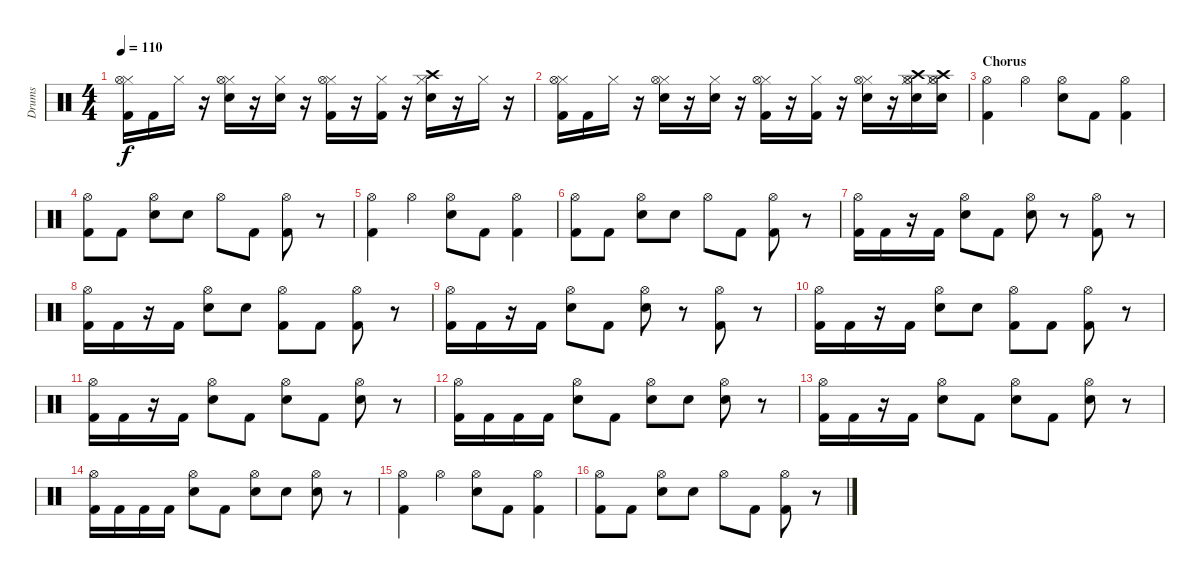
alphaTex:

\track ("Drums" "Drums") {instrument percussion}
\staff {score}
\articulation defaults
\ts (4 4)
\tempo 110
\clef neutral
\ks c
("Hi-Hat (closed)" "Hi-Hat (open)" "Kick (hit) 2").16{dy f} "Kick (hit) 2".16 "Hi-Hat (closed)".16 r.16 ("Hi-Hat (closed)" "Hi-Hat (open)" "Snare (hit) 2").16 r.16 ("Hi-Hat (closed)" "Snare (hit) 2").16 r.16 ("Hi-Hat (closed)" "Hi-Hat (open)" "Kick (hit) 2").16 r.16 ("Hi-Hat (closed)" "Kick (hit) 2").16 r.16 ("Hi-Hat (closed)" "Crash high (hit)" "Snare (hit) 2").16 r.16 "Hi-Hat (closed)".16 r.16 |
("Hi-Hat (closed)" "Hi-Hat (open)" "Kick (hit) 2").16 "Kick (hit) 2".16 "Hi-Hat (closed)".16 r.16 ("Hi-Hat (closed)" "Hi-Hat (open)" "Snare (hit) 2").16 r.16 ("Hi-Hat (closed)" "Snare (hit) 2").16 r.16 ("Hi-Hat (closed)" "Hi-Hat (open)" "Kick (hit) 2").16 r.16 ("Hi-Hat (closed)" "Kick (hit) 2").16 r.16 ("Hi-Hat (closed)" "Hi-Hat (open)" "Snare (hit) 2").16 r.16 ("Hi-Hat (closed)" "Hi-Hat (open)" "Crash high (hit)" "Snare (hit) 2").16 ("Hi-Hat (closed)" "Hi-Hat (open)" "Crash high (hit)" "Snare (hit) 2").16 |
\section ("" "Chorus")
("Hi-Hat (open)" "Kick (hit) 2").4 "Hi-Hat (open)".4 ("Hi-Hat (open)" "Snare (hit) 2").8 "Kick (hit) 2".8 ("Hi-Hat (open)" "Kick (hit) 2").4 |
("Hi-Hat (open)" "Kick (hit) 2").8 "Kick (hit) 2".8 ("Hi-Hat (open)" "Snare (hit) 2").8 "Snare (hit) 2".8 "Hi-Hat (open)".8 "Kick (hit) 2".8 ("Hi-Hat (open)" "Kick (hit) 2").8 r.8 |
("Hi-Hat (open)" "Kick (hit) 2").4 "Hi-Hat (open)".4 ("Hi-Hat (open)" "Snare (hit) 2").8 "Kick (hit) 2".8 ("Hi-Hat (open)" "Kick (hit) 2").4 |
("Hi-Hat (open)" "Kick (hit) 2").8 "Kick (hit) 2".8 ("Hi-Hat (open)" "Snare (hit) 2").8 "Snare (hit) 2".8 "Hi-Hat (open)".8 "Kick (hit) 2".8 ("Hi-Hat (open)" "Kick (hit) 2").8 r.8 |
("Hi-Hat (open)" "Kick (hit) 2").16 "Kick (hit) 2".16 r.16 "Kick (hit) 2".16 ("Hi-Hat (open)" "Snare (hit) 2").8 "Kick (hit) 2".8 ("Hi-Hat (open)" "Snare (hit) 2").8 r.8 ("Hi-Hat (open)" "Kick (hit) 2").8 r.8 |
("Hi-Hat (open)" "Kick (hit) 2").16 "Kick (hit) 2".16 r.16 "Kick (hit) 2".16 ("Hi-Hat (open)" "Snare (hit) 2").8 "Snare (hit) 2".8 ("Hi-Hat (open)" "Kick (hit) 2").8 "Kick (hit) 2".8 ("Hi-Hat (open)" "Kick (hit) 2").8 r.8 |
("Hi-Hat (open)" "Kick (hit) 2").16 "Kick (hit) 2".16 r.16 "Kick (hit) 2".16 ("Hi-Hat (open)" "Snare (hit) 2").8 "Kick (hit) 2".8 ("Hi-Hat (open)" "Snare (hit) 2").8 r.8 ("Hi-Hat (open)" "Kick (hit) 2").8 r.8 |
("Hi-Hat (open)" "Kick (hit) 2").16 "Kick (hit) 2".16 r.16 "Kick (hit) 2".16 ("Hi-Hat (open)" "Snare (hit) 2").8 "Snare (hit) 2".8 ("Hi-Hat (open)" "Kick (hit) 2").8 "Kick (hit) 2".8 ("Hi-Hat (open)" "Kick (hit) 2").8 r.8 |
("Hi-Hat (open)" "Kick (hit) 2").16 "Kick (hit) 2".16 r.16 "Kick (hit) 2".16 ("Hi-Hat (open)" "Snare (hit) 2").8 "Kick (hit) 2".8 ("Hi-Hat (open)" "Snare (hit) 2").8 "Kick (hit) 2".8 ("Hi-Hat (open)" "Snare (hit) 2").8 r.8 |
("Hi-Hat (open)" "Kick (hit) 2").16 "Kick (hit) 2".16 "Kick (hit) 2".16 "Kick (hit) 2".16 ("Hi-Hat (open)" "Snare (hit) 2").8 "Kick (hit) 2".8 ("Hi-Hat (open)" "Snare (hit) 2").8 "Snare (hit) 2".8 ("Hi-Hat (open)" "Snare (hit) 2").8 r.8 |
("Hi-Hat (open)" "Kick (hit) 2").16 "Kick (hit) 2".16 r.16 "Kick (hit) 2".16 ("Hi-Hat (open)" "Snare (hit) 2").8 "Kick (hit) 2".8 ("Hi-Hat (open)" "Snare (hit) 2").8 "Kick (hit) 2".8 ("Hi-Hat (open)" "Snare (hit) 2").8 r.8 |
("Hi-Hat (open)" "Kick (hit) 2").16 "Kick (hit) 2".16 "Kick (hit) 2".16 "Kick (hit) 2".16 ("Hi-Hat (open)" "Snare (hit) 2").8 "Kick (hit) 2".8 ("Hi-Hat (open)" "Snare (hit) 2").8 "Snare (hit) 2".8 ("Hi-Hat (open)" "Snare (hit) 2").8 r.8 |
("Hi-Hat (open)" "Kick (hit) 2").4 "Hi-Hat (open)".4 ("Hi-Hat (open)" "Snare (hit) 2").8 "Kick (hit) 2".8 ("Hi-Hat (open)" "Kick (hit) 2").4 |
("Hi-Hat (open)" "Kick (hit) 2").8 "Kick (hit) 2".8 ("Hi-Hat (open)" "Snare (hit) 2").8 "Snare (hit) 2".8 "Hi-Hat (open)".8 "Kick (hit) 2".8 ("Hi-Hat (open)" "Kick (hit) 2").8 r.8
